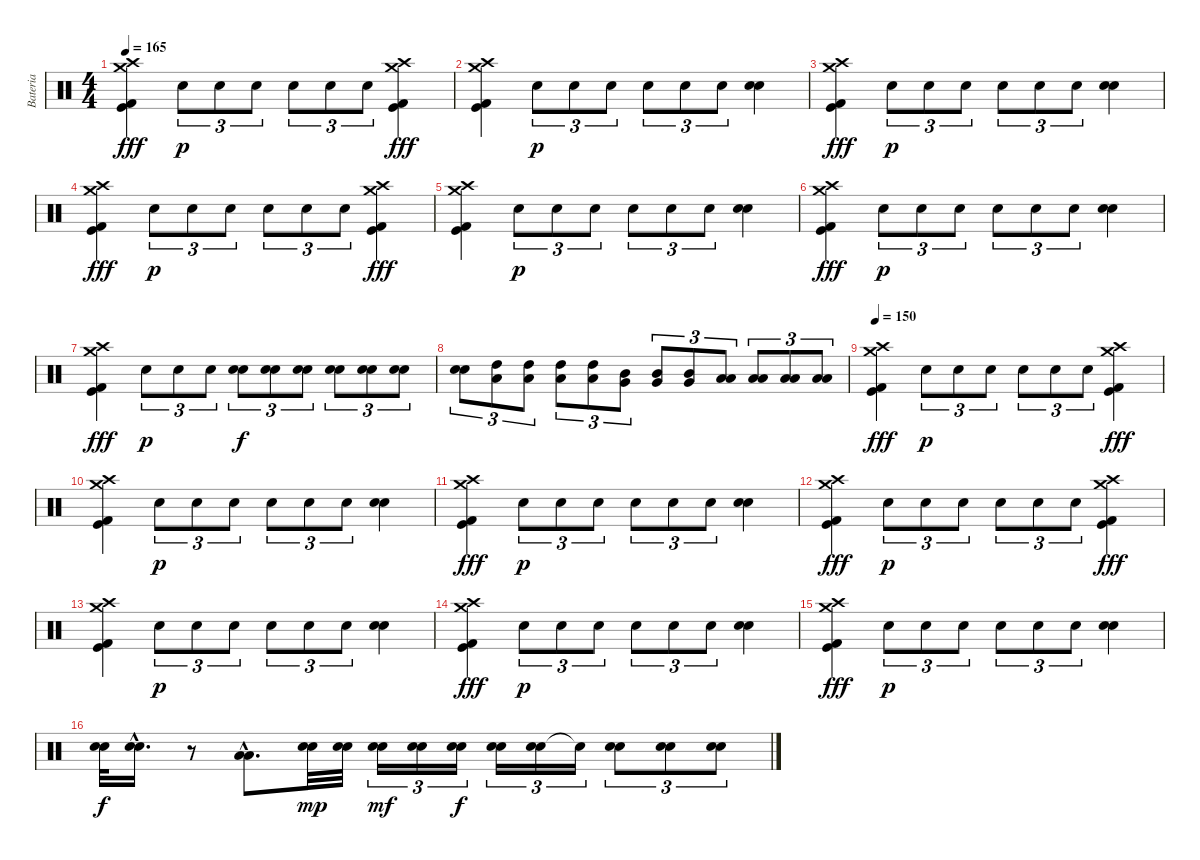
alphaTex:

\track ("Bateria" "Bateria") {instrument percussion}
\staff {score}
\articulation defaults
\ts (4 4)
\tempo 165
\tempo 150
\tempo 165
\clef neutral
\ks c
("Crash high (hit)" "Crash medium (hit)" "Kick (hit) 2" "Kick (hit)").4{dy fff} "Electric Snare (hit)".8{tu (3 2) dy p} "Electric Snare (hit)".8{tu (3 2)} "Electric Snare (hit)".8{tu (3 2)} "Electric Snare (hit)".8{tu (3 2)} "Electric Snare (hit)".8{tu (3 2)} "Electric Snare (hit)".8{tu (3 2)} ("Crash high (hit)" "Crash medium (hit)" "Kick (hit) 2" "Kick (hit)").4{dy fff} |
("Crash high (hit)" "Crash medium (hit)" "Kick (hit) 2" "Kick (hit)").4 "Electric Snare (hit)".8{tu (3 2) dy p} "Electric Snare (hit)".8{tu (3 2)} "Electric Snare (hit)".8{tu (3 2)} "Electric Snare (hit)".8{tu (3 2)} "Electric Snare (hit)".8{tu (3 2)} "Electric Snare (hit)".8{tu (3 2)} ("Electric Snare (hit)" "Electric Snare (hit)").4{bd 240} |
("Crash high (hit)" "Crash medium (hit)" "Kick (hit) 2" "Kick (hit)").4{dy fff} "Electric Snare (hit)".8{tu (3 2) dy p} "Electric Snare (hit)".8{tu (3 2)} "Electric Snare (hit)".8{tu (3 2)} "Electric Snare (hit)".8{tu (3 2)} "Electric Snare (hit)".8{tu (3 2)} "Electric Snare (hit)".8{tu (3 2)} ("Electric Snare (hit)" "Electric Snare (hit)").4{bd 240} |
("Crash high (hit)" "Crash medium (hit)" "Kick (hit) 2" "Kick (hit)").4{dy fff} "Electric Snare (hit)".8{tu (3 2) dy p} "Electric Snare (hit)".8{tu (3 2)} "Electric Snare (hit)".8{tu (3 2)} "Electric Snare (hit)".8{tu (3 2)} "Electric Snare (hit)".8{tu (3 2)} "Electric Snare (hit)".8{tu (3 2)} ("Crash high (hit)" "Crash medium (hit)" "Kick (hit) 2" "Kick (hit)").4{dy fff} |
("Crash high (hit)" "Crash medium (hit)" "Kick (hit) 2" "Kick (hit)").4 "Electric Snare (hit)".8{tu (3 2) dy p} "Electric Snare (hit)".8{tu (3 2)} "Electric Snare (hit)".8{tu (3 2)} "Electric Snare (hit)".8{tu (3 2)} "Electric Snare (hit)".8{tu (3 2)} "Electric Snare (hit)".8{tu (3 2)} ("Electric Snare (hit)" "Electric Snare (hit)").4{bd 240} |
("Crash high (hit)" "Crash medium (hit)" "Kick (hit) 2" "Kick (hit)").4{dy fff} "Electric Snare (hit)".8{tu (3 2) dy p} "Electric Snare (hit)".8{tu (3 2)} "Electric Snare (hit)".8{tu (3 2)} "Electric Snare (hit)".8{tu (3 2)} "Electric Snare (hit)".8{tu (3 2)} "Electric Snare (hit)".8{tu (3 2)} ("Electric Snare (hit)" "Electric Snare (hit)").4{bd 240} |
("Crash high (hit)" "Crash medium (hit)" "Kick (hit) 2" "Kick (hit)").4{dy fff} "Electric Snare (hit)".8{tu (3 2) dy p} "Electric Snare (hit)".8{tu (3 2)} "Electric Snare (hit)".8{tu (3 2)} ("Electric Snare (hit)" "Snare (hit) 2").8{tu (3 2) dy f} ("Electric Snare (hit)" "Snare (hit) 2").8{tu (3 2)} ("Electric Snare (hit)" "Snare (hit) 2").8{tu (3 2)} ("Electric Snare (hit)" "Snare (hit) 2").8{tu (3 2)} ("Electric Snare (hit)" "Snare (hit) 2").8{tu (3 2)} ("Electric Snare (hit)" "Snare (hit) 2").8{tu (3 2)} |
("Electric Snare (hit)" "Snare (hit) 2").8{tu (3 2)} ("High Tom (hit)" "Low Tom (hit)").8{tu (3 2)} ("High Tom (hit)" "Low Tom (hit)").8{tu (3 2)} ("High Tom (hit)" "Low Tom (hit)").8{tu (3 2)} ("High Tom (hit)" "Low Tom (hit)").8{tu (3 2)} ("Mid Tom (hit)" "Very Low Tom (hit)").8{tu (3 2)} ("Mid Tom (hit)" "Very Low Tom (hit)").8{tu (3 2)} ("Mid Tom (hit)" "Very Low Tom (hit)").8{tu (3 2)} ("Low Tom (hit)" "Low Floor Tom (hit)").8{tu (3 2)} ("Low Tom (hit)" "Low Floor Tom (hit)").8{tu (3 2)} ("Low Tom (hit)" "Low Floor Tom (hit)").8{tu (3 2)} ("Low Tom (hit)" "Low Floor Tom (hit)").8{tu (3 2)} |
\tempo 150
("Crash high (hit)" "Crash medium (hit)" "Kick (hit) 2" "Kick (hit)").4{dy fff} "Electric Snare (hit)".8{tu (3 2) dy p} "Electric Snare (hit)".8{tu (3 2)} "Electric Snare (hit)".8{tu (3 2)} "Electric Snare (hit)".8{tu (3 2)} "Electric Snare (hit)".8{tu (3 2)} "Electric Snare (hit)".8{tu (3 2)} ("Crash high (hit)" "Crash medium (hit)" "Kick (hit) 2" "Kick (hit)").4{dy fff} |
("Crash high (hit)" "Crash medium (hit)" "Kick (hit) 2" "Kick (hit)").4 "Electric Snare (hit)".8{tu (3 2) dy p} "Electric Snare (hit)".8{tu (3 2)} "Electric Snare (hit)".8{tu (3 2)} "Electric Snare (hit)".8{tu (3 2)} "Electric Snare (hit)".8{tu (3 2)} "Electric Snare (hit)".8{tu (3 2)} ("Electric Snare (hit)" "Electric Snare (hit)").4{bd 240} |
("Crash high (hit)" "Crash medium (hit)" "Kick (hit) 2" "Kick (hit)").4{dy fff} "Electric Snare (hit)".8{tu (3 2) dy p} "Electric Snare (hit)".8{tu (3 2)} "Electric Snare (hit)".8{tu (3 2)} "Electric Snare (hit)".8{tu (3 2)} "Electric Snare (hit)".8{tu (3 2)} "Electric Snare (hit)".8{tu (3 2)} ("Electric Snare (hit)" "Electric Snare (hit)").4{bd 240} |
("Crash high (hit)" "Crash medium (hit)" "Kick (hit) 2" "Kick (hit)").4{dy fff} "Electric Snare (hit)".8{tu (3 2) dy p} "Electric Snare (hit)".8{tu (3 2)} "Electric Snare (hit)".8{tu (3 2)} "Electric Snare (hit)".8{tu (3 2)} "Electric Snare (hit)".8{tu (3 2)} "Electric Snare (hit)".8{tu (3 2)} ("Crash high (hit)" "Crash medium (hit)" "Kick (hit) 2" "Kick (hit)").4{dy fff} |
("Crash high (hit)" "Crash medium (hit)" "Kick (hit) 2" "Kick (hit)").4 "Electric Snare (hit)".8{tu (3 2) dy p} "Electric Snare (hit)".8{tu (3 2)} "Electric Snare (hit)".8{tu (3 2)} "Electric Snare (hit)".8{tu (3 2)} "Electric Snare (hit)".8{tu (3 2)} "Electric Snare (hit)".8{tu (3 2)} ("Electric Snare (hit)" "Electric Snare (hit)").4{bd 240} |
("Crash high (hit)" "Crash medium (hit)" "Kick (hit) 2" "Kick (hit)").4{dy fff} "Electric Snare (hit)".8{tu (3 2) dy p} "Electric Snare (hit)".8{tu (3 2)} "Electric Snare (hit)".8{tu (3 2)} "Electric Snare (hit)".8{tu (3 2)} "Electric Snare (hit)".8{tu (3 2)} "Electric Snare (hit)".8{tu (3 2)} ("Electric Snare (hit)" "Electric Snare (hit)").4{bd 240} |
("Crash high (hit)" "Crash medium (hit)" "Kick (hit) 2" "Kick (hit)").4{dy fff} "Electric Snare (hit)".8{tu (3 2) dy p} "Electric Snare (hit)".8{tu (3 2)} "Electric Snare (hit)".8{tu (3 2)} "Electric Snare (hit)".8{tu (3 2)} "Electric Snare (hit)".8{tu (3 2)} "Electric Snare (hit)".8{tu (3 2)} ("Electric Snare (hit)" "Electric Snare (hit)").4{bd 240} |
("Electric Snare (hit)" "Snare (hit) 2").32{dy f} ("Electric Snare (hit)"{hac} "Snare (hit) 2"{hac}).16{d} r.8 ("Low Tom (hit)"{hac} "Low Floor Tom (hit)"{hac}).8{d} ("Electric Snare (hit)" "Snare (hit) 2").32{dy mp} ("Electric Snare (hit)" "Snare (hit) 2").32 ("Electric Snare (hit)" "Snare (hit) 2").16{tu (3 2) dy mf} ("Electric Snare (hit)" "Snare (hit) 2").16{tu (3 2)} ("Electric Snare (hit)" "Snare (hit) 2").16{tu (3 2) dy f} ("Electric Snare (hit)" "Snare (hit) 2").16{tu (3 2)} ("Electric Snare (hit)" "Snare (hit) 2").16{tu (3 2)} "Snare (hit)"{t}.16{tu (3 2)} ("Electric Snare (hit)" "Snare (hit) 2").8{tu (3 2)} ("Electric Snare (hit)" "Snare (hit) 2").8{tu (3 2)} ("Electric Snare (hit)" "Snare (hit) 2").8{tu (3 2)}
